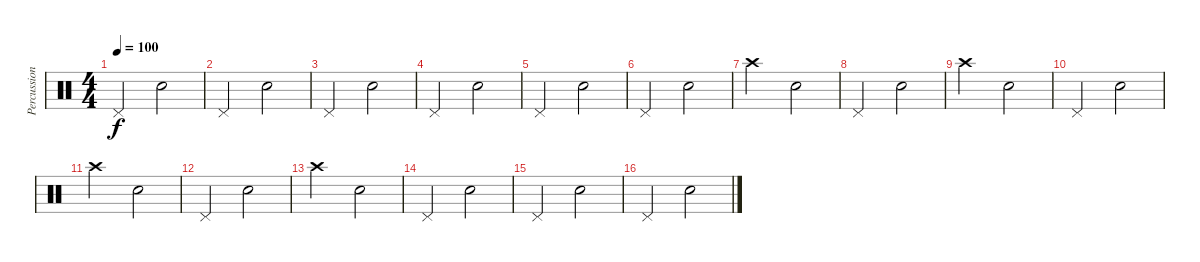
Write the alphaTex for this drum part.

\track ("Percussioni" "Percussion") {instrument percussion}
\staff {score}
\articulation defaults
\ts (4 4)
\tempo 100
\clef neutral
\ks c "Pedal Hi-Hat (hit)".2{dy f} "Snare (hit) 2".2
|
"Pedal Hi-Hat (hit)".2 "Snare (hit) 2".2 |
"Pedal Hi-Hat (hit)".2 "Snare (hit) 2".2 |
"Pedal Hi-Hat (hit)".2 "Snare (hit) 2".2 |
"Pedal Hi-Hat (hit)".2 "Snare (hit) 2".2 |
"Pedal Hi-Hat (hit)".2 "Snare (hit) 2".2 |
"Crash high (hit)".2 "Snare (hit) 2".2 |
"Pedal Hi-Hat (hit)".2 "Snare (hit) 2".2 |
"Crash high (hit)".2 "Snare (hit) 2".2 |
"Pedal Hi-Hat (hit)".2 "Snare (hit) 2".2 |
"Crash high (hit)".2 "Snare (hit) 2".2 |
"Pedal Hi-Hat (hit)".2 "Snare (hit) 2".2 |
"Crash high (hit)".2 "Snare (hit) 2".2 |
"Pedal Hi-Hat (hit)".2 "Snare (hit) 2".2 |
"Pedal Hi-Hat (hit)".2 "Snare (hit) 2".2 |
"Pedal Hi-Hat (hit)".2 "Snare (hit) 2".2
